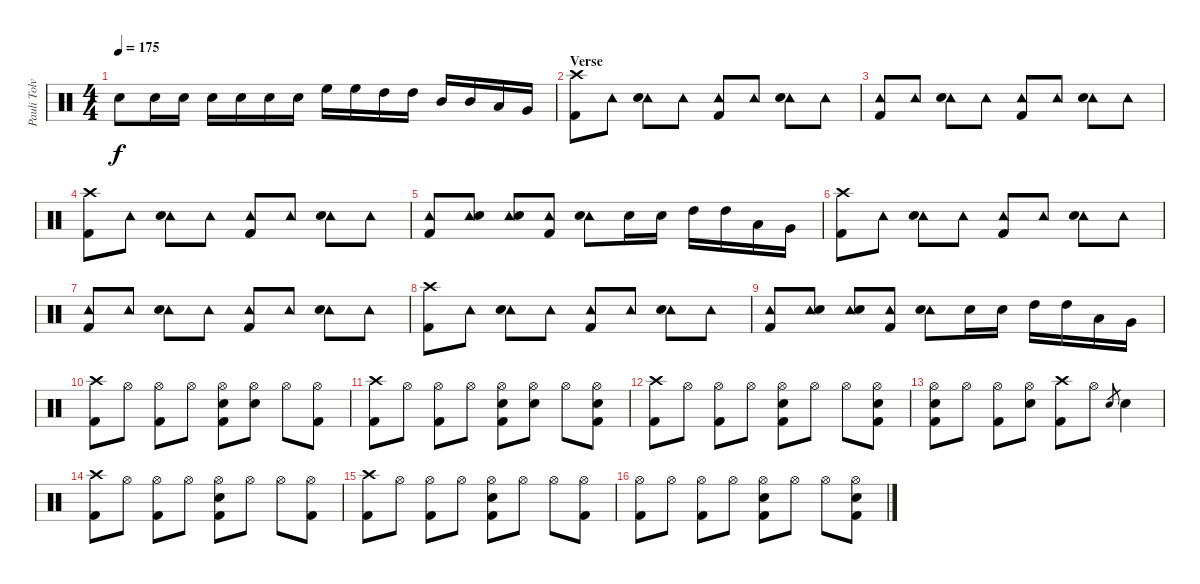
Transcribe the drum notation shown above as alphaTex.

\track ("Pauli Tolvanen-Drums" "Pauli Tolv") {instrument percussion}
\staff {score}
\articulation defaults
\ts (4 4)
\tempo 175
\clef neutral
\ks c "Snare (hit) 2".8{dy f} "Snare (hit) 2".16 "Snare (hit) 2".16 "Snare (hit) 2".16 "Snare (hit) 2".16 "Snare (hit) 2".16 "Snare (hit) 2".16 "High Floor Tom (hit)".16 "High Floor Tom (hit)".16 "High Tom (hit)".16 "High Tom (hit)".16 "Mid Tom (hit)".16 "Mid Tom (hit)".16 "Low Tom (hit)".16 "Very Low Tom (hit)".16
|
\section ("" "Verse")
("Crash high (hit)" "Kick (hit) 2").8 "Tambourine (hit)".8 ("Tambourine (hit)" "Snare (hit) 2").8 "Tambourine (hit)".8 ("Tambourine (hit)" "Kick (hit) 2").8 "Tambourine (hit)".8 ("Tambourine (hit)" "Snare (hit) 2").8 "Tambourine (hit)".8 |
("Tambourine (hit)" "Kick (hit) 2").8 "Tambourine (hit)".8 ("Tambourine (hit)" "Snare (hit) 2").8 "Tambourine (hit)".8 ("Tambourine (hit)" "Kick (hit) 2").8 "Tambourine (hit)".8 ("Tambourine (hit)" "Snare (hit) 2").8 "Tambourine (hit)".8 |
("Crash high (hit)" "Kick (hit) 2").8 "Tambourine (hit)".8 ("Tambourine (hit)" "Snare (hit) 2").8 "Tambourine (hit)".8 ("Tambourine (hit)" "Kick (hit) 2").8 "Tambourine (hit)".8 ("Tambourine (hit)" "Snare (hit) 2").8 "Tambourine (hit)".8 |
("Tambourine (hit)" "Kick (hit) 2").8 ("Tambourine (hit)" "Snare (hit) 2").8 ("Tambourine (hit)" "Snare (hit) 2").8 ("Tambourine (hit)" "Kick (hit) 2").8 ("Tambourine (hit)" "Snare (hit) 2").8 "Snare (hit) 2".16 "Snare (hit) 2".16 "High Tom (hit)".16 "High Tom (hit)".16 "Low Tom (hit)".16 "Very Low Tom (hit)".16 |
("Crash high (hit)" "Kick (hit) 2").8 "Tambourine (hit)".8 ("Tambourine (hit)" "Snare (hit) 2").8 "Tambourine (hit)".8 ("Tambourine (hit)" "Kick (hit) 2").8 "Tambourine (hit)".8 ("Tambourine (hit)" "Snare (hit) 2").8 "Tambourine (hit)".8 |
("Tambourine (hit)" "Kick (hit) 2").8 "Tambourine (hit)".8 ("Tambourine (hit)" "Snare (hit) 2").8 "Tambourine (hit)".8 ("Tambourine (hit)" "Kick (hit) 2").8 "Tambourine (hit)".8 ("Tambourine (hit)" "Snare (hit) 2").8 "Tambourine (hit)".8 |
("Crash high (hit)" "Kick (hit) 2").8 "Tambourine (hit)".8 ("Tambourine (hit)" "Snare (hit) 2").8 "Tambourine (hit)".8 ("Tambourine (hit)" "Kick (hit) 2").8 "Tambourine (hit)".8 ("Tambourine (hit)" "Snare (hit) 2").8 "Tambourine (hit)".8 |
("Tambourine (hit)" "Kick (hit) 2").8 ("Tambourine (hit)" "Snare (hit) 2").8 ("Tambourine (hit)" "Snare (hit) 2").8 ("Tambourine (hit)" "Kick (hit) 2").8 ("Tambourine (hit)" "Snare (hit) 2").8 "Snare (hit) 2".16 "Snare (hit) 2".16 "High Tom (hit)".16 "High Tom (hit)".16 "Low Tom (hit)".16 "Very Low Tom (hit)".16 |
("Crash high (hit)" "Kick (hit) 2").8 "Hi-Hat (open)".8 ("Hi-Hat (open)" "Kick (hit) 2").8 "Hi-Hat (open)".8 ("Hi-Hat (open)" "Snare (hit) 2" "Kick (hit) 2").8 ("Hi-Hat (open)" "Snare (hit) 2").8 "Hi-Hat (open)".8 ("Hi-Hat (open)" "Kick (hit) 2").8 |
("Crash high (hit)" "Kick (hit) 2").8 "Hi-Hat (open)".8 ("Hi-Hat (open)" "Kick (hit) 2").8 "Hi-Hat (open)".8 ("Hi-Hat (open)" "Snare (hit) 2" "Kick (hit) 2").8 ("Hi-Hat (open)" "Snare (hit) 2").8 "Hi-Hat (open)".8 ("Hi-Hat (open)" "Snare (hit) 2" "Kick (hit) 2").8 |
("Crash high (hit)" "Kick (hit) 2").8 "Hi-Hat (open)".8 ("Hi-Hat (open)" "Kick (hit) 2").8 "Hi-Hat (open)".8 ("Hi-Hat (open)" "Snare (hit) 2" "Kick (hit) 2").8 "Hi-Hat (open)".8 "Hi-Hat (open)".8 ("Hi-Hat (open)" "Snare (hit) 2" "Kick (hit) 2").8 |
("Hi-Hat (open)" "Snare (hit) 2" "Kick (hit) 2").8 "Hi-Hat (open)".8 ("Hi-Hat (open)" "Kick (hit) 2").8 ("Hi-Hat (open)" "Snare (hit) 2").8 ("Crash high (hit)" "Kick (hit) 2").8 "Hi-Hat (open)".8 "Snare (hit) 2".8{gr} "Snare (hit) 2".4 |
("Crash high (hit)" "Kick (hit) 2").8 "Hi-Hat (open)".8 ("Hi-Hat (open)" "Kick (hit) 2").8 "Hi-Hat (open)".8 ("Hi-Hat (open)" "Snare (hit) 2" "Kick (hit) 2").8 "Hi-Hat (open)".8 "Hi-Hat (open)".8 ("Hi-Hat (open)" "Kick (hit) 2").8 |
("Crash high (hit)" "Kick (hit) 2").8 "Hi-Hat (open)".8 ("Hi-Hat (open)" "Kick (hit) 2").8 "Hi-Hat (open)".8 ("Hi-Hat (open)" "Snare (hit) 2" "Kick (hit) 2").8 "Hi-Hat (open)".8 "Hi-Hat (open)".8 ("Hi-Hat (open)" "Kick (hit) 2").8 |
("Hi-Hat (open)" "Kick (hit) 2").8 "Hi-Hat (open)".8 ("Hi-Hat (open)" "Kick (hit) 2").8 "Hi-Hat (open)".8 ("Hi-Hat (open)" "Snare (hit) 2" "Kick (hit) 2").8 "Hi-Hat (open)".8 "Hi-Hat (open)".8 ("Hi-Hat (open)" "Snare (hit) 2" "Kick (hit) 2").8
